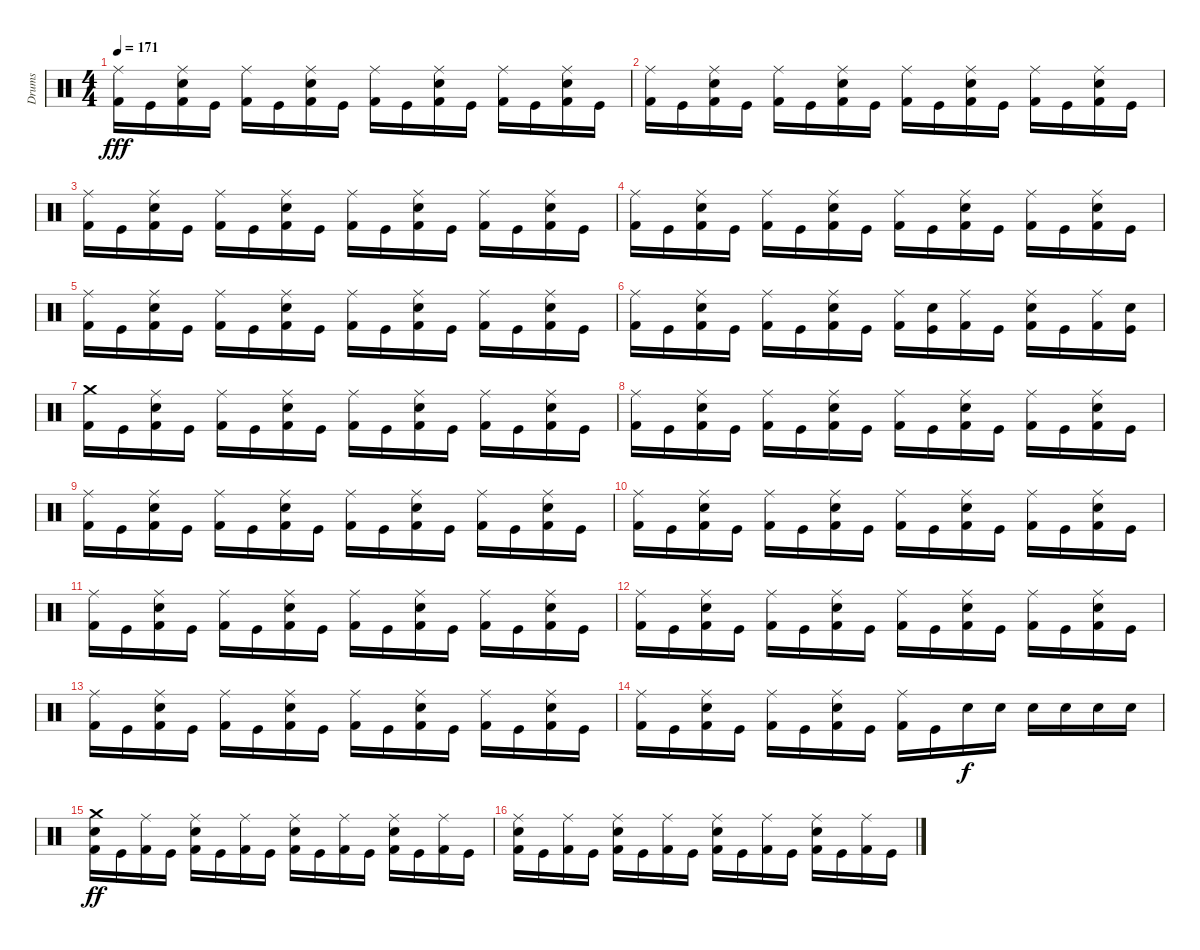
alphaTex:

\track ("Drums" "Drums") {instrument percussion}
\staff {score}
\articulation defaults
\ts (4 4)
\tempo 171
\clef neutral
\ks c
("Ride (middle)" "Kick (hit) 2").16{dy fff} "Kick (hit)".16 ("Ride (middle)" "Electric Snare (hit)" "Kick (hit) 2").16 "Kick (hit)".16 ("Ride (middle)" "Kick (hit) 2").16 "Kick (hit)".16 ("Ride (middle)" "Electric Snare (hit)" "Kick (hit) 2").16 "Kick (hit)".16 ("Ride (middle)" "Kick (hit) 2").16 "Kick (hit)".16 ("Ride (middle)" "Electric Snare (hit)" "Kick (hit) 2").16 "Kick (hit)".16 ("Ride (middle)" "Kick (hit) 2").16 "Kick (hit)".16 ("Ride (middle)" "Electric Snare (hit)" "Kick (hit) 2").16 "Kick (hit)".16 |
("Ride (middle)" "Kick (hit) 2").16 "Kick (hit)".16 ("Ride (middle)" "Electric Snare (hit)" "Kick (hit) 2").16 "Kick (hit)".16 ("Ride (middle)" "Kick (hit) 2").16 "Kick (hit)".16 ("Ride (middle)" "Electric Snare (hit)" "Kick (hit) 2").16 "Kick (hit)".16 ("Ride (middle)" "Kick (hit) 2").16 "Kick (hit)".16 ("Ride (middle)" "Electric Snare (hit)" "Kick (hit) 2").16 "Kick (hit)".16 ("Ride (middle)" "Kick (hit) 2").16 "Kick (hit)".16 ("Ride (middle)" "Electric Snare (hit)" "Kick (hit) 2").16 "Kick (hit)".16 |
("Ride (middle)" "Kick (hit) 2").16 "Kick (hit)".16 ("Ride (middle)" "Electric Snare (hit)" "Kick (hit) 2").16 "Kick (hit)".16 ("Ride (middle)" "Kick (hit) 2").16 "Kick (hit)".16 ("Ride (middle)" "Electric Snare (hit)" "Kick (hit) 2").16 "Kick (hit)".16 ("Ride (middle)" "Kick (hit) 2").16 "Kick (hit)".16 ("Ride (middle)" "Electric Snare (hit)" "Kick (hit) 2").16 "Kick (hit)".16 ("Ride (middle)" "Kick (hit) 2").16 "Kick (hit)".16 ("Ride (middle)" "Electric Snare (hit)" "Kick (hit) 2").16 "Kick (hit)".16 |
("Ride (middle)" "Kick (hit) 2").16 "Kick (hit)".16 ("Ride (middle)" "Electric Snare (hit)" "Kick (hit) 2").16 "Kick (hit)".16 ("Ride (middle)" "Kick (hit) 2").16 "Kick (hit)".16 ("Ride (middle)" "Electric Snare (hit)" "Kick (hit) 2").16 "Kick (hit)".16 ("Ride (middle)" "Kick (hit) 2").16 "Kick (hit)".16 ("Ride (middle)" "Electric Snare (hit)" "Kick (hit) 2").16 "Kick (hit)".16 ("Ride (middle)" "Kick (hit) 2").16 "Kick (hit)".16 ("Ride (middle)" "Electric Snare (hit)" "Kick (hit) 2").16 "Kick (hit)".16 |
("Ride (middle)" "Kick (hit) 2").16 "Kick (hit)".16 ("Ride (middle)" "Electric Snare (hit)" "Kick (hit) 2").16 "Kick (hit)".16 ("Ride (middle)" "Kick (hit) 2").16 "Kick (hit)".16 ("Ride (middle)" "Electric Snare (hit)" "Kick (hit) 2").16 "Kick (hit)".16 ("Ride (middle)" "Kick (hit) 2").16 "Kick (hit)".16 ("Ride (middle)" "Electric Snare (hit)" "Kick (hit) 2").16 "Kick (hit)".16 ("Ride (middle)" "Kick (hit) 2").16 "Kick (hit)".16 ("Ride (middle)" "Electric Snare (hit)" "Kick (hit) 2").16 "Kick (hit)".16 |
("Ride (middle)" "Kick (hit) 2").16 "Kick (hit)".16 ("Ride (middle)" "Electric Snare (hit)" "Kick (hit) 2").16 "Kick (hit)".16 ("Ride (middle)" "Kick (hit) 2").16 "Kick (hit)".16 ("Ride (middle)" "Electric Snare (hit)" "Kick (hit) 2").16 "Kick (hit)".16 ("Ride (middle)" "Kick (hit) 2").16 ("Electric Snare (hit)" "Kick (hit)").16 ("Ride (middle)" "Kick (hit) 2").16 "Kick (hit)".16 ("Ride (middle)" "Electric Snare (hit)" "Kick (hit) 2").16 "Kick (hit)".16 ("Ride (middle)" "Kick (hit) 2").16 ("Electric Snare (hit)" "Kick (hit)").16 |
("Crash medium (hit)" "Kick (hit) 2").16 "Kick (hit)".16 ("Ride (middle)" "Electric Snare (hit)" "Kick (hit) 2").16 "Kick (hit)".16 ("Ride (middle)" "Kick (hit) 2").16 "Kick (hit)".16 ("Ride (middle)" "Electric Snare (hit)" "Kick (hit) 2").16 "Kick (hit)".16 ("Ride (middle)" "Kick (hit) 2").16 "Kick (hit)".16 ("Ride (middle)" "Electric Snare (hit)" "Kick (hit) 2").16 "Kick (hit)".16 ("Ride (middle)" "Kick (hit) 2").16 "Kick (hit)".16 ("Ride (middle)" "Electric Snare (hit)" "Kick (hit) 2").16 "Kick (hit)".16 |
("Ride (middle)" "Kick (hit) 2").16 "Kick (hit)".16 ("Ride (middle)" "Electric Snare (hit)" "Kick (hit) 2").16 "Kick (hit)".16 ("Ride (middle)" "Kick (hit) 2").16 "Kick (hit)".16 ("Ride (middle)" "Electric Snare (hit)" "Kick (hit) 2").16 "Kick (hit)".16 ("Ride (middle)" "Kick (hit) 2").16 "Kick (hit)".16 ("Ride (middle)" "Electric Snare (hit)" "Kick (hit) 2").16 "Kick (hit)".16 ("Ride (middle)" "Kick (hit) 2").16 "Kick (hit)".16 ("Ride (middle)" "Electric Snare (hit)" "Kick (hit) 2").16 "Kick (hit)".16 |
("Ride (middle)" "Kick (hit) 2").16 "Kick (hit)".16 ("Ride (middle)" "Electric Snare (hit)" "Kick (hit) 2").16 "Kick (hit)".16 ("Ride (middle)" "Kick (hit) 2").16 "Kick (hit)".16 ("Ride (middle)" "Electric Snare (hit)" "Kick (hit) 2").16 "Kick (hit)".16 ("Ride (middle)" "Kick (hit) 2").16 "Kick (hit)".16 ("Ride (middle)" "Electric Snare (hit)" "Kick (hit) 2").16 "Kick (hit)".16 ("Ride (middle)" "Kick (hit) 2").16 "Kick (hit)".16 ("Ride (middle)" "Electric Snare (hit)" "Kick (hit) 2").16 "Kick (hit)".16 |
("Ride (middle)" "Kick (hit) 2").16 "Kick (hit)".16 ("Ride (middle)" "Electric Snare (hit)" "Kick (hit) 2").16 "Kick (hit)".16 ("Ride (middle)" "Kick (hit) 2").16 "Kick (hit)".16 ("Ride (middle)" "Electric Snare (hit)" "Kick (hit) 2").16 "Kick (hit)".16 ("Ride (middle)" "Kick (hit) 2").16 "Kick (hit)".16 ("Ride (middle)" "Electric Snare (hit)" "Kick (hit) 2").16 "Kick (hit)".16 ("Ride (middle)" "Kick (hit) 2").16 "Kick (hit)".16 ("Ride (middle)" "Electric Snare (hit)" "Kick (hit) 2").16 "Kick (hit)".16 |
("Ride (middle)" "Kick (hit) 2").16 "Kick (hit)".16 ("Ride (middle)" "Electric Snare (hit)" "Kick (hit) 2").16 "Kick (hit)".16 ("Ride (middle)" "Kick (hit) 2").16 "Kick (hit)".16 ("Ride (middle)" "Electric Snare (hit)" "Kick (hit) 2").16 "Kick (hit)".16 ("Ride (middle)" "Kick (hit) 2").16 "Kick (hit)".16 ("Ride (middle)" "Electric Snare (hit)" "Kick (hit) 2").16 "Kick (hit)".16 ("Ride (middle)" "Kick (hit) 2").16 "Kick (hit)".16 ("Ride (middle)" "Electric Snare (hit)" "Kick (hit) 2").16 "Kick (hit)".16 |
("Ride (middle)" "Kick (hit) 2").16 "Kick (hit)".16 ("Ride (middle)" "Electric Snare (hit)" "Kick (hit) 2").16 "Kick (hit)".16 ("Ride (middle)" "Kick (hit) 2").16 "Kick (hit)".16 ("Ride (middle)" "Electric Snare (hit)" "Kick (hit) 2").16 "Kick (hit)".16 ("Ride (middle)" "Kick (hit) 2").16 "Kick (hit)".16 ("Ride (middle)" "Electric Snare (hit)" "Kick (hit) 2").16 "Kick (hit)".16 ("Ride (middle)" "Kick (hit) 2").16 "Kick (hit)".16 ("Ride (middle)" "Electric Snare (hit)" "Kick (hit) 2").16 "Kick (hit)".16 |
("Ride (middle)" "Kick (hit) 2").16 "Kick (hit)".16 ("Ride (middle)" "Electric Snare (hit)" "Kick (hit) 2").16 "Kick (hit)".16 ("Ride (middle)" "Kick (hit) 2").16 "Kick (hit)".16 ("Ride (middle)" "Electric Snare (hit)" "Kick (hit) 2").16 "Kick (hit)".16 ("Ride (middle)" "Kick (hit) 2").16 "Kick (hit)".16 ("Ride (middle)" "Electric Snare (hit)" "Kick (hit) 2").16 "Kick (hit)".16 ("Ride (middle)" "Kick (hit) 2").16 "Kick (hit)".16 ("Ride (middle)" "Electric Snare (hit)" "Kick (hit) 2").16 "Kick (hit)".16 |
("Ride (middle)" "Kick (hit) 2").16 "Kick (hit)".16 ("Ride (middle)" "Electric Snare (hit)" "Kick (hit) 2").16 "Kick (hit)".16 ("Ride (middle)" "Kick (hit) 2").16 "Kick (hit)".16 ("Ride (middle)" "Electric Snare (hit)" "Kick (hit) 2").16 "Kick (hit)".16 ("Ride (middle)" "Kick (hit) 2").16 "Kick (hit)".16 "Electric Snare (hit)".16{dy f} "Electric Snare (hit)".16 "Electric Snare (hit)".16 "Electric Snare (hit)".16 "Electric Snare (hit)".16 "Electric Snare (hit)".16 |
("Crash medium (hit)" "Electric Snare (hit)" "Kick (hit) 2").16{dy ff} "Kick (hit)".16 ("Ride (middle)" "Kick (hit) 2").16 "Kick (hit)".16 ("Ride (middle)" "Electric Snare (hit)" "Kick (hit) 2").16 "Kick (hit)".16 ("Ride (middle)" "Kick (hit) 2").16 "Kick (hit)".16 ("Ride (middle)" "Electric Snare (hit)" "Kick (hit) 2").16 "Kick (hit)".16 ("Ride (middle)" "Kick (hit) 2").16 "Kick (hit)".16 ("Ride (middle)" "Electric Snare (hit)" "Kick (hit) 2").16 "Kick (hit)".16 ("Ride (middle)" "Kick (hit) 2").16 "Kick (hit)".16 |
("Ride (middle)" "Electric Snare (hit)" "Kick (hit) 2").16 "Kick (hit)".16 ("Ride (middle)" "Kick (hit) 2").16 "Kick (hit)".16 ("Ride (middle)" "Electric Snare (hit)" "Kick (hit) 2").16 "Kick (hit)".16 ("Ride (middle)" "Kick (hit) 2").16 "Kick (hit)".16 ("Ride (middle)" "Electric Snare (hit)" "Kick (hit) 2").16 "Kick (hit)".16 ("Ride (middle)" "Kick (hit) 2").16 "Kick (hit)".16 ("Ride (middle)" "Electric Snare (hit)" "Kick (hit) 2").16 "Kick (hit)".16 ("Ride (middle)" "Kick (hit) 2").16 "Kick (hit)".16
